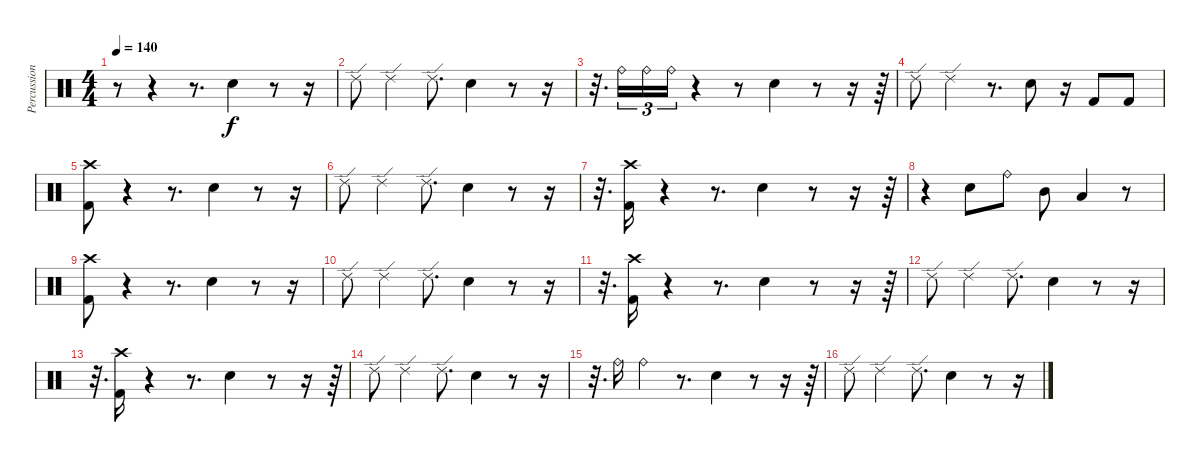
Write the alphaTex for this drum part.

\track ("Percussion" "Percussion") {instrument percussion}
\staff {score}
\articulation defaults
\ts (4 4)
\tempo 140
\clef neutral
\ks c
r.8{dy f} r.4 r.8{d} "Snare (hit) 2".4 r.8 r.16 |
"Ride (edge) 2".8 "Ride (edge) 2".4 "Ride (edge) 2".8{d} "Snare (hit) 2".4 r.8 r.16 |
r.32{d} "Ride (bell)".16{tu (3 2)} "Ride (bell)".16{tu (3 2)} "Ride (bell)".16{tu (3 2)} r.4 r.8 "Snare (hit) 2".4 r.8 r.16 r.64 |
"Ride (edge) 2".8 "Ride (edge) 2".4 r.8{d} "Snare (hit) 2".8 r.16 "Kick (hit) 2".8 "Kick (hit) 2".8 |
("Crash high (hit)" "Kick (hit) 2").8 r.4 r.8{d} "Snare (hit) 2".4 r.8 r.16 |
"Ride (edge) 2".8 "Ride (edge) 2".4 "Ride (edge) 2".8{d} "Snare (hit) 2".4 r.8 r.16 |
r.32{d} ("Crash high (hit)" "Kick (hit) 2").16 r.4 r.8{d} "Snare (hit) 2".4 r.8 r.16 r.64 |
r.4 "Snare (hit) 2".8 "Ride (bell)".8 "Mid Tom (hit)".8 "Low Tom (hit)".4 r.8 |
("Crash high (hit)" "Kick (hit) 2").8 r.4 r.8{d} "Snare (hit) 2".4 r.8 r.16 |
"Ride (edge) 2".8 "Ride (edge) 2".4 "Ride (edge) 2".8{d} "Snare (hit) 2".4 r.8 r.16 |
r.32{d} ("Crash high (hit)" "Kick (hit) 2").16 r.4 r.8{d} "Snare (hit) 2".4 r.8 r.16 r.64 |
"Ride (edge) 2".8 "Ride (edge) 2".4 "Ride (edge) 2".8{d} "Snare (hit) 2".4 r.8 r.16 |
r.32{d} ("Crash high (hit)" "Kick (hit) 2").16 r.4 r.8{d} "Snare (hit) 2".4 r.8 r.16 r.64 |
"Ride (edge) 2".8 "Ride (edge) 2".4 "Ride (edge) 2".8{d} "Snare (hit) 2".4 r.8 r.16 |
r.32{d} "Ride (bell)".16 "Ride (bell)".4 r.8{d} "Snare (hit) 2".4 r.8 r.16 r.64 |
"Ride (edge) 2".8 "Ride (edge) 2".4 "Ride (edge) 2".8{d} "Snare (hit) 2".4 r.8 r.16
